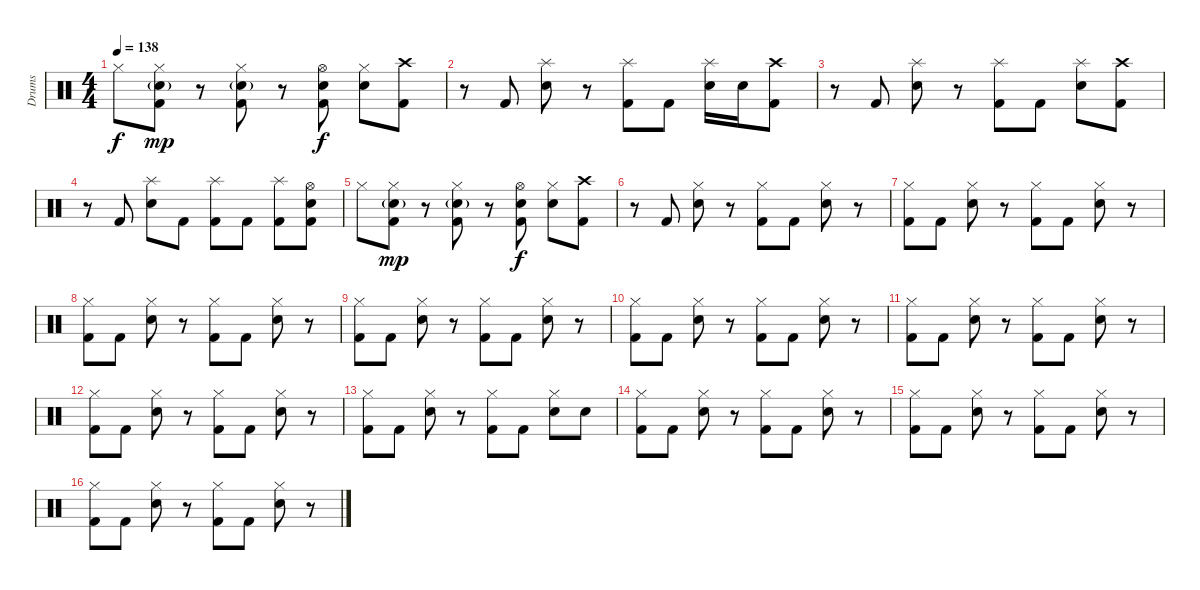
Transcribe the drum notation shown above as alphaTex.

\track ("Drums" "Drums") {instrument percussion}
\staff {score}
\articulation defaults
\ts (4 4)
\tempo 138
\clef neutral
\ks c "Hi-Hat (closed)".8{dy f}
("Hi-Hat (closed)" "Electric Snare (hit)"{g} "Kick (hit) 2").8{dy mp} r.8 ("Hi-Hat (closed)" "Electric Snare (hit)"{g} "Kick (hit) 2").8 r.8 ("Hi-Hat (open)" "Electric Snare (hit)" "Kick (hit) 2").8{dy f} ("Hi-Hat (closed)" "Electric Snare (hit)").8 ("Crash high (hit)" "Kick (hit) 2").8 |
r.8 "Kick (hit) 2".8 ("Splash (hit)" "Electric Snare (hit)").8 r.8 ("Splash (hit)" "Kick (hit) 2").8 "Kick (hit) 2".8 ("Splash (hit)" "Electric Snare (hit)").16 "Electric Snare (hit)".16 ("Crash high (hit)" "Kick (hit) 2").8 |
r.8 "Kick (hit) 2".8 ("Splash (hit)" "Electric Snare (hit)").8 r.8 ("Splash (hit)" "Kick (hit) 2").8 "Kick (hit) 2".8 ("Splash (hit)" "Electric Snare (hit)").8 ("Crash high (hit)" "Kick (hit) 2").8 |
r.8 "Kick (hit) 2".8 ("Splash (hit)" "Electric Snare (hit)").8 "Kick (hit) 2".8 ("Splash (hit)" "Kick (hit) 2").8 "Kick (hit) 2".8 ("Splash (hit)" "Kick (hit) 2").8 ("Hi-Hat (open)" "Electric Snare (hit)" "Kick (hit) 2").8 |
"Hi-Hat (closed)".8 ("Hi-Hat (closed)" "Electric Snare (hit)"{g} "Kick (hit) 2").8{dy mp} r.8 ("Hi-Hat (closed)" "Electric Snare (hit)"{g} "Kick (hit) 2").8 r.8 ("Hi-Hat (open)" "Electric Snare (hit)" "Kick (hit) 2").8{dy f} ("Hi-Hat (closed)" "Electric Snare (hit)").8 ("Crash high (hit)" "Kick (hit) 2").8 |
r.8 "Kick (hit) 2".8 ("Hi-Hat (closed)" "Electric Snare (hit)").8 r.8 ("Hi-Hat (closed)" "Kick (hit) 2").8 "Kick (hit) 2".8 ("Hi-Hat (closed)" "Electric Snare (hit)").8 r.8 |
("Hi-Hat (closed)" "Kick (hit) 2").8 "Kick (hit) 2".8 ("Hi-Hat (closed)" "Electric Snare (hit)").8 r.8 ("Hi-Hat (closed)" "Kick (hit) 2").8 "Kick (hit) 2".8 ("Hi-Hat (closed)" "Electric Snare (hit)").8 r.8 |
("Hi-Hat (closed)" "Kick (hit) 2").8 "Kick (hit) 2".8 ("Hi-Hat (closed)" "Electric Snare (hit)").8 r.8 ("Hi-Hat (closed)" "Kick (hit) 2").8 "Kick (hit) 2".8 ("Hi-Hat (closed)" "Electric Snare (hit)").8 r.8 |
("Hi-Hat (closed)" "Kick (hit) 2").8 "Kick (hit) 2".8 ("Hi-Hat (closed)" "Electric Snare (hit)").8 r.8 ("Hi-Hat (closed)" "Kick (hit) 2").8 "Kick (hit) 2".8 ("Hi-Hat (closed)" "Electric Snare (hit)").8 r.8 |
("Hi-Hat (closed)" "Kick (hit) 2").8 "Kick (hit) 2".8 ("Hi-Hat (closed)" "Electric Snare (hit)").8 r.8 ("Hi-Hat (closed)" "Kick (hit) 2").8 "Kick (hit) 2".8 ("Hi-Hat (closed)" "Electric Snare (hit)").8 r.8 |
("Hi-Hat (closed)" "Kick (hit) 2").8 "Kick (hit) 2".8 ("Hi-Hat (closed)" "Electric Snare (hit)").8 r.8 ("Hi-Hat (closed)" "Kick (hit) 2").8 "Kick (hit) 2".8 ("Hi-Hat (closed)" "Electric Snare (hit)").8 r.8 |
("Hi-Hat (closed)" "Kick (hit) 2").8 "Kick (hit) 2".8 ("Hi-Hat (closed)" "Electric Snare (hit)").8 r.8 ("Hi-Hat (closed)" "Kick (hit) 2").8 "Kick (hit) 2".8 ("Hi-Hat (closed)" "Electric Snare (hit)").8 r.8 |
("Hi-Hat (closed)" "Kick (hit) 2").8 "Kick (hit) 2".8 ("Hi-Hat (closed)" "Electric Snare (hit)").8 r.8 ("Hi-Hat (closed)" "Kick (hit) 2").8 "Kick (hit) 2".8 ("Hi-Hat (closed)" "Electric Snare (hit)").8 "Electric Snare (hit)".8 |
("Hi-Hat (closed)" "Kick (hit) 2").8 "Kick (hit) 2".8 ("Hi-Hat (closed)" "Electric Snare (hit)").8 r.8 ("Hi-Hat (closed)" "Kick (hit) 2").8 "Kick (hit) 2".8 ("Hi-Hat (closed)" "Electric Snare (hit)").8 r.8 |
("Hi-Hat (closed)" "Kick (hit) 2").8 "Kick (hit) 2".8 ("Hi-Hat (closed)" "Electric Snare (hit)").8 r.8 ("Hi-Hat (closed)" "Kick (hit) 2").8 "Kick (hit) 2".8 ("Hi-Hat (closed)" "Electric Snare (hit)").8 r.8 |
("Hi-Hat (closed)" "Kick (hit) 2").8 "Kick (hit) 2".8 ("Hi-Hat (closed)" "Electric Snare (hit)").8 r.8 ("Hi-Hat (closed)" "Kick (hit) 2").8 "Kick (hit) 2".8 ("Hi-Hat (closed)" "Electric Snare (hit)").8 r.8
